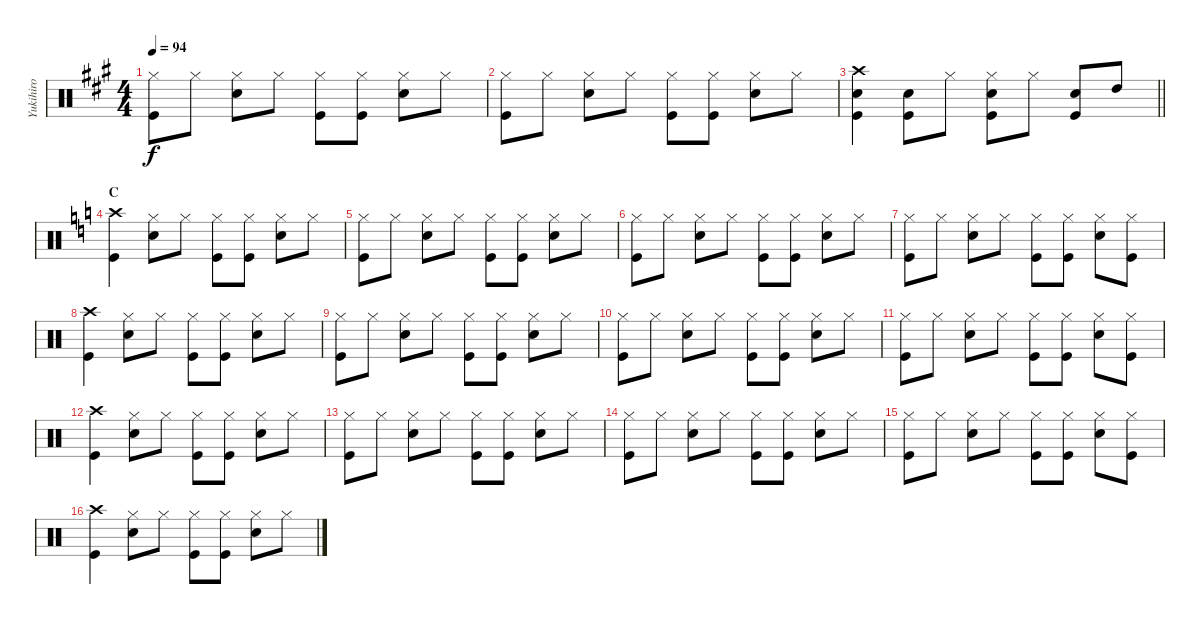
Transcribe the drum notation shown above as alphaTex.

\track ("Yukihiro" "Yukihiro") {instrument percussion}
\staff {score}
\articulation defaults
\ts (4 4)
\tempo 94
\clef neutral
\ks a
("Hi-Hat (closed)" "Kick (hit)").8{dy f} "Hi-Hat (closed)".8 ("Hi-Hat (closed)" "Snare (hit) 2").8 "Hi-Hat (closed)".8 ("Hi-Hat (closed)" "Kick (hit)").8 ("Hi-Hat (closed)" "Kick (hit)").8 ("Hi-Hat (closed)" "Snare (hit) 2").8 "Hi-Hat (closed)".8 |
("Hi-Hat (closed)" "Kick (hit)").8 "Hi-Hat (closed)".8 ("Hi-Hat (closed)" "Snare (hit) 2").8 "Hi-Hat (closed)".8 ("Hi-Hat (closed)" "Kick (hit)").8 ("Hi-Hat (closed)" "Kick (hit)").8 ("Hi-Hat (closed)" "Snare (hit) 2").8 "Hi-Hat (closed)".8 |
\barLineRight lightlight
("Kick (hit)" "Snare (hit) 2" "Crash high (hit)").4 ("Snare (hit) 2" "Kick (hit)").8 "Hi-Hat (closed)".8 ("Hi-Hat (closed)" "Snare (hit) 2" "Kick (hit)").8 "Hi-Hat (closed)".8 ("Snare (hit) 2" "Kick (hit)").8 "High Tom (hit)".8 |
\section ("" "C")
\ks c
("Crash high (hit)" "Kick (hit)").4 ("Hi-Hat (closed)" "Snare (hit) 2").8 "Hi-Hat (closed)".8 ("Hi-Hat (closed)" "Kick (hit)").8 ("Hi-Hat (closed)" "Kick (hit)").8 ("Hi-Hat (closed)" "Snare (hit) 2").8 "Hi-Hat (closed)".8 |
("Hi-Hat (closed)" "Kick (hit)").8 "Hi-Hat (closed)".8 ("Hi-Hat (closed)" "Snare (hit) 2").8 "Hi-Hat (closed)".8 ("Hi-Hat (closed)" "Kick (hit)").8 ("Hi-Hat (closed)" "Kick (hit)").8 ("Hi-Hat (closed)" "Snare (hit) 2").8 "Hi-Hat (closed)".8 |
("Hi-Hat (closed)" "Kick (hit)").8 "Hi-Hat (closed)".8 ("Hi-Hat (closed)" "Snare (hit) 2").8 "Hi-Hat (closed)".8 ("Hi-Hat (closed)" "Kick (hit)").8 ("Hi-Hat (closed)" "Kick (hit)").8 ("Hi-Hat (closed)" "Snare (hit) 2").8 "Hi-Hat (closed)".8 |
("Hi-Hat (closed)" "Kick (hit)").8 "Hi-Hat (closed)".8 ("Hi-Hat (closed)" "Snare (hit) 2").8 "Hi-Hat (closed)".8 ("Hi-Hat (closed)" "Kick (hit)").8 ("Hi-Hat (closed)" "Kick (hit)").8 ("Hi-Hat (closed)" "Snare (hit) 2").8 ("Hi-Hat (closed)" "Kick (hit)").8 |
("Crash high (hit)" "Kick (hit)").4 ("Hi-Hat (closed)" "Snare (hit) 2").8 "Hi-Hat (closed)".8 ("Hi-Hat (closed)" "Kick (hit)").8 ("Hi-Hat (closed)" "Kick (hit)").8 ("Hi-Hat (closed)" "Snare (hit) 2").8 "Hi-Hat (closed)".8 |
("Hi-Hat (closed)" "Kick (hit)").8 "Hi-Hat (closed)".8 ("Hi-Hat (closed)" "Snare (hit) 2").8 "Hi-Hat (closed)".8 ("Hi-Hat (closed)" "Kick (hit)").8 ("Hi-Hat (closed)" "Kick (hit)").8 ("Hi-Hat (closed)" "Snare (hit) 2").8 "Hi-Hat (closed)".8 |
("Hi-Hat (closed)" "Kick (hit)").8 "Hi-Hat (closed)".8 ("Hi-Hat (closed)" "Snare (hit) 2").8 "Hi-Hat (closed)".8 ("Hi-Hat (closed)" "Kick (hit)").8 ("Hi-Hat (closed)" "Kick (hit)").8 ("Hi-Hat (closed)" "Snare (hit) 2").8 "Hi-Hat (closed)".8 |
("Hi-Hat (closed)" "Kick (hit)").8 "Hi-Hat (closed)".8 ("Hi-Hat (closed)" "Snare (hit) 2").8 "Hi-Hat (closed)".8 ("Hi-Hat (closed)" "Kick (hit)").8 ("Hi-Hat (closed)" "Kick (hit)").8 ("Hi-Hat (closed)" "Snare (hit) 2").8 ("Hi-Hat (closed)" "Kick (hit)").8 |
("Crash high (hit)" "Kick (hit)").4 ("Hi-Hat (closed)" "Snare (hit) 2").8 "Hi-Hat (closed)".8 ("Hi-Hat (closed)" "Kick (hit)").8 ("Hi-Hat (closed)" "Kick (hit)").8 ("Hi-Hat (closed)" "Snare (hit) 2").8 "Hi-Hat (closed)".8 |
("Hi-Hat (closed)" "Kick (hit)").8 "Hi-Hat (closed)".8 ("Hi-Hat (closed)" "Snare (hit) 2").8 "Hi-Hat (closed)".8 ("Hi-Hat (closed)" "Kick (hit)").8 ("Hi-Hat (closed)" "Kick (hit)").8 ("Hi-Hat (closed)" "Snare (hit) 2").8 "Hi-Hat (closed)".8 |
("Hi-Hat (closed)" "Kick (hit)").8 "Hi-Hat (closed)".8 ("Hi-Hat (closed)" "Snare (hit) 2").8 "Hi-Hat (closed)".8 ("Hi-Hat (closed)" "Kick (hit)").8 ("Hi-Hat (closed)" "Kick (hit)").8 ("Hi-Hat (closed)" "Snare (hit) 2").8 "Hi-Hat (closed)".8 |
("Hi-Hat (closed)" "Kick (hit)").8 "Hi-Hat (closed)".8 ("Hi-Hat (closed)" "Snare (hit) 2").8 "Hi-Hat (closed)".8 ("Hi-Hat (closed)" "Kick (hit)").8 ("Hi-Hat (closed)" "Kick (hit)").8 ("Hi-Hat (closed)" "Snare (hit) 2").8 ("Hi-Hat (closed)" "Kick (hit)").8 |
("Crash high (hit)" "Kick (hit)").4 ("Hi-Hat (closed)" "Snare (hit) 2").8 "Hi-Hat (closed)".8 ("Hi-Hat (closed)" "Kick (hit)").8 ("Hi-Hat (closed)" "Kick (hit)").8 ("Hi-Hat (closed)" "Snare (hit) 2").8 "Hi-Hat (closed)".8
